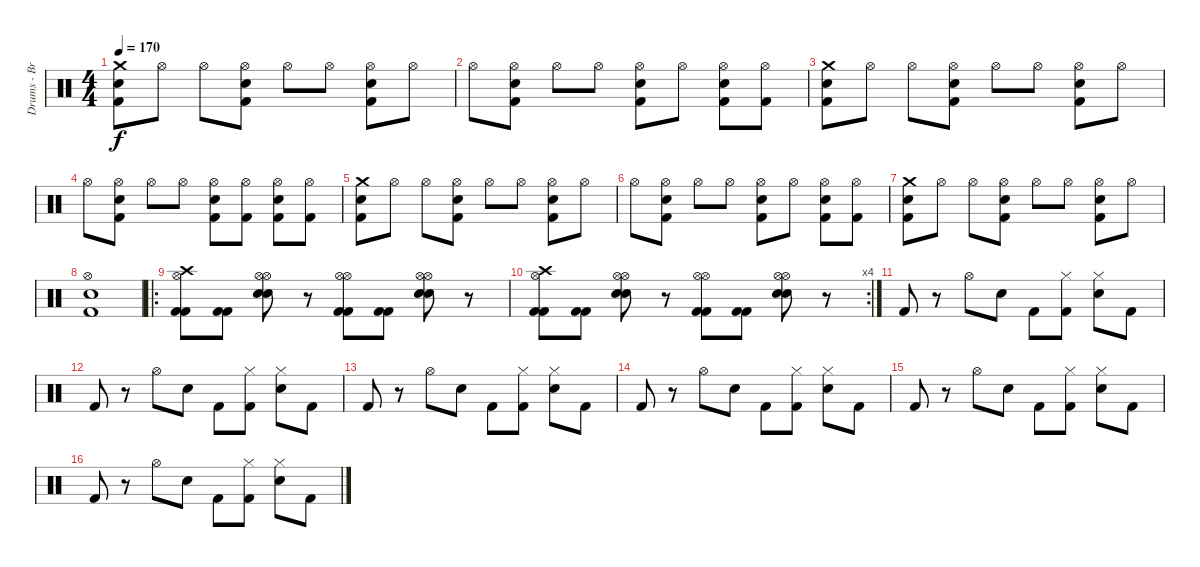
\track ("Drums - Branden Steineckert" "Drums - Br") {instrument percussion}
\staff {score}
\articulation defaults
\ts (4 4)
\tempo 170
\clef neutral
\ks c
("Crash medium (hit)" "Electric Snare (hit)" "Kick (hit) 2").8{dy f} "Hi-Hat (open)".8 "Hi-Hat (open)".8 ("Hi-Hat (open)" "Electric Snare (hit)" "Kick (hit) 2").8 "Hi-Hat (open)".8 "Hi-Hat (open)".8 ("Hi-Hat (open)" "Electric Snare (hit)" "Kick (hit) 2").8 "Hi-Hat (open)".8 |
"Hi-Hat (open)".8 ("Hi-Hat (open)" "Electric Snare (hit)" "Kick (hit) 2").8 "Hi-Hat (open)".8 "Hi-Hat (open)".8 ("Hi-Hat (open)" "Electric Snare (hit)" "Kick (hit) 2").8 "Hi-Hat (open)".8 ("Hi-Hat (open)" "Electric Snare (hit)" "Kick (hit) 2").8 ("Hi-Hat (open)" "Kick (hit) 2").8 |
("Crash medium (hit)" "Electric Snare (hit)" "Kick (hit) 2").8 "Hi-Hat (open)".8 "Hi-Hat (open)".8 ("Hi-Hat (open)" "Electric Snare (hit)" "Kick (hit) 2").8 "Hi-Hat (open)".8 "Hi-Hat (open)".8 ("Hi-Hat (open)" "Electric Snare (hit)" "Kick (hit) 2").8 "Hi-Hat (open)".8 |
"Hi-Hat (open)".8 ("Hi-Hat (open)" "Electric Snare (hit)" "Kick (hit) 2").8 "Hi-Hat (open)".8 "Hi-Hat (open)".8 ("Hi-Hat (open)" "Electric Snare (hit)" "Kick (hit) 2").8 ("Hi-Hat (open)" "Kick (hit) 2").8 ("Hi-Hat (open)" "Electric Snare (hit)" "Kick (hit) 2").8 ("Hi-Hat (open)" "Kick (hit) 2").8 |
("Crash medium (hit)" "Electric Snare (hit)" "Kick (hit) 2").8 "Hi-Hat (open)".8 "Hi-Hat (open)".8 ("Hi-Hat (open)" "Electric Snare (hit)" "Kick (hit) 2").8 "Hi-Hat (open)".8 "Hi-Hat (open)".8 ("Hi-Hat (open)" "Electric Snare (hit)" "Kick (hit) 2").8 "Hi-Hat (open)".8 |
"Hi-Hat (open)".8 ("Hi-Hat (open)" "Electric Snare (hit)" "Kick (hit) 2").8 "Hi-Hat (open)".8 "Hi-Hat (open)".8 ("Hi-Hat (open)" "Electric Snare (hit)" "Kick (hit) 2").8 "Hi-Hat (open)".8 ("Hi-Hat (open)" "Electric Snare (hit)" "Kick (hit) 2").8 ("Hi-Hat (open)" "Kick (hit) 2").8 |
("Crash medium (hit)" "Electric Snare (hit)" "Kick (hit) 2").8 "Hi-Hat (open)".8 "Hi-Hat (open)".8 ("Hi-Hat (open)" "Electric Snare (hit)" "Kick (hit) 2").8 "Hi-Hat (open)".8 "Hi-Hat (open)".8 ("Hi-Hat (open)" "Electric Snare (hit)" "Kick (hit) 2").8 "Hi-Hat (open)".8 |
("Hi-Hat (open)" "Electric Snare (hit)" "Kick (hit) 2").1 |
\ro
("Hi-Hat (open)" "Crash high (hit)" "Kick (hit) 2" "Kick (hit) 2").8 ("Kick (hit) 2" "Kick (hit) 2").8 ("Hi-Hat (open)" "Hi-Hat (open)" "Electric Snare (hit)" "Electric Snare (hit)").8 r.8 ("Hi-Hat (open)" "Hi-Hat (open)" "Kick (hit) 2" "Kick (hit) 2").8 ("Kick (hit) 2" "Kick (hit) 2").8 ("Hi-Hat (open)" "Hi-Hat (open)" "Electric Snare (hit)" "Electric Snare (hit)").8 r.8 |
\rc 4
("Hi-Hat (open)" "Crash high (hit)" "Kick (hit) 2" "Kick (hit) 2").8 ("Kick (hit) 2" "Kick (hit) 2").8 ("Hi-Hat (open)" "Hi-Hat (open)" "Electric Snare (hit)" "Electric Snare (hit)").8 r.8 ("Hi-Hat (open)" "Hi-Hat (open)" "Kick (hit) 2" "Kick (hit) 2").8 ("Kick (hit) 2" "Kick (hit) 2").8 ("Hi-Hat (open)" "Hi-Hat (open)" "Electric Snare (hit)" "Electric Snare (hit)").8 r.8 |
"Kick (hit) 2".8 r.8 "Hi-Hat (open)".8 "Electric Snare (hit)".8 "Kick (hit) 2".8 ("Hi-Hat (closed)" "Kick (hit) 2").8 ("Hi-Hat (closed)" "Electric Snare (hit)").8 "Kick (hit) 2".8 |
"Kick (hit) 2".8 r.8 "Hi-Hat (open)".8 "Electric Snare (hit)".8 "Kick (hit) 2".8 ("Hi-Hat (closed)" "Kick (hit) 2").8 ("Hi-Hat (closed)" "Electric Snare (hit)").8 "Kick (hit) 2".8 |
"Kick (hit) 2".8 r.8 "Hi-Hat (open)".8 "Electric Snare (hit)".8 "Kick (hit) 2".8 ("Hi-Hat (closed)" "Kick (hit) 2").8 ("Hi-Hat (closed)" "Electric Snare (hit)").8 "Kick (hit) 2".8 |
"Kick (hit) 2".8 r.8 "Hi-Hat (open)".8 "Electric Snare (hit)".8 "Kick (hit) 2".8 ("Hi-Hat (closed)" "Kick (hit) 2").8 ("Hi-Hat (closed)" "Electric Snare (hit)").8 "Kick (hit) 2".8 |
"Kick (hit) 2".8 r.8 "Hi-Hat (open)".8 "Electric Snare (hit)".8 "Kick (hit) 2".8 ("Hi-Hat (closed)" "Kick (hit) 2").8 ("Hi-Hat (closed)" "Electric Snare (hit)").8 "Kick (hit) 2".8 |
"Kick (hit) 2".8 r.8 "Hi-Hat (open)".8 "Electric Snare (hit)".8 "Kick (hit) 2".8 ("Hi-Hat (closed)" "Kick (hit) 2").8 ("Hi-Hat (closed)" "Electric Snare (hit)").8 "Kick (hit) 2".8
